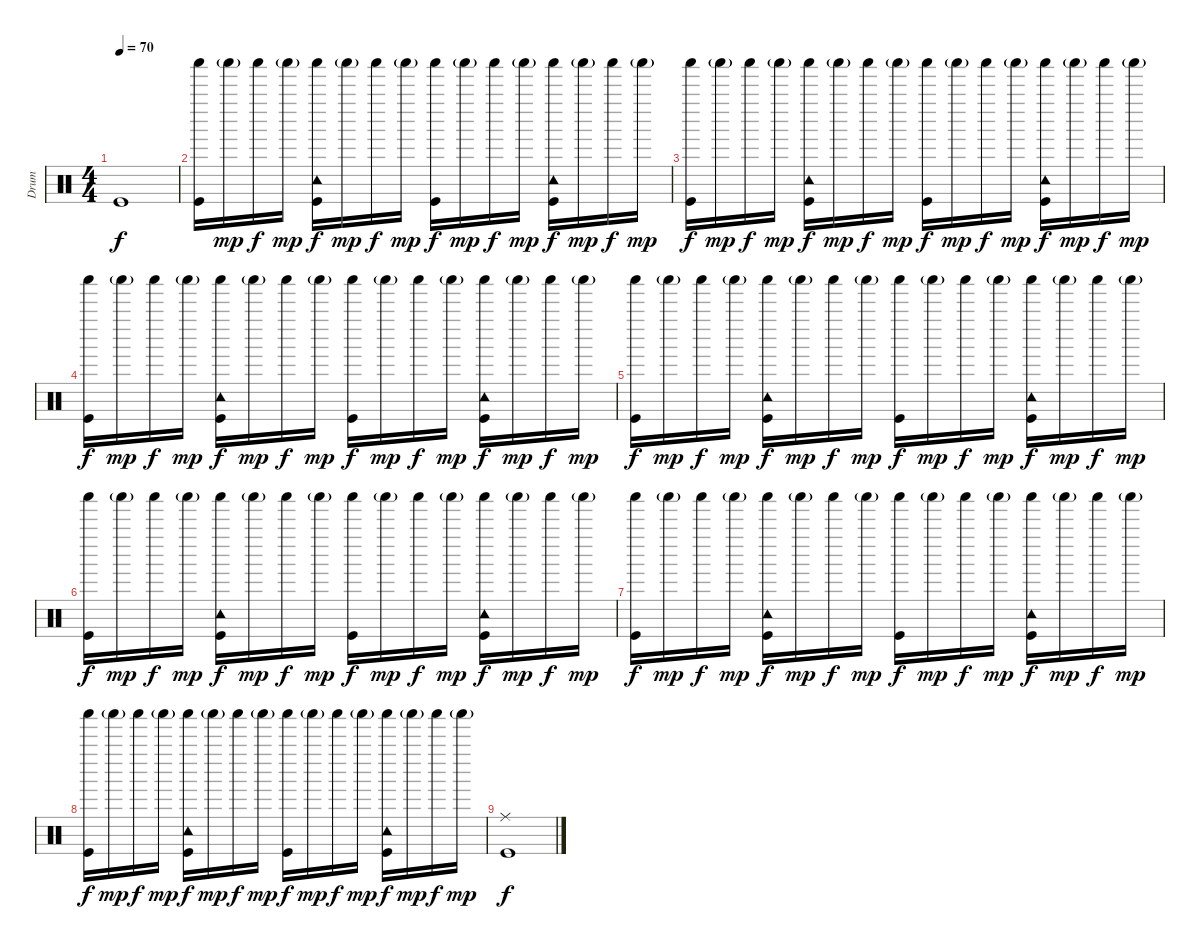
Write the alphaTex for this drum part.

\track ("Drum" "Drum") {instrument percussion}
\staff {score}
\articulation defaults
\ts (4 4)
\tempo 70
\clef neutral
\ks c "Kick (hit)".1{dy f}
|
("Shaker (hit)" "Kick (hit)").16 "Shaker (hit)"{g}.16{dy mp} "Shaker (hit)".16{dy f} "Shaker (hit)"{g}.16{dy mp} ("Tambourine (hit)" "Shaker (hit)" "Kick (hit)").16{dy f} "Shaker (hit)"{g}.16{dy mp} "Shaker (hit)".16{dy f} "Shaker (hit)"{g}.16{dy mp} ("Shaker (hit)" "Kick (hit)").16{dy f} "Shaker (hit)"{g}.16{dy mp} "Shaker (hit)".16{dy f} "Shaker (hit)"{g}.16{dy mp} ("Tambourine (hit)" "Shaker (hit)" "Kick (hit)").16{dy f} "Shaker (hit)"{g}.16{dy mp} "Shaker (hit)".16{dy f} "Shaker (hit)"{g}.16{dy mp} |
("Shaker (hit)" "Kick (hit)").16{dy f} "Shaker (hit)"{g}.16{dy mp} "Shaker (hit)".16{dy f} "Shaker (hit)"{g}.16{dy mp} ("Tambourine (hit)" "Shaker (hit)" "Kick (hit)").16{dy f} "Shaker (hit)"{g}.16{dy mp} "Shaker (hit)".16{dy f} "Shaker (hit)"{g}.16{dy mp} ("Shaker (hit)" "Kick (hit)").16{dy f} "Shaker (hit)"{g}.16{dy mp} "Shaker (hit)".16{dy f} "Shaker (hit)"{g}.16{dy mp} ("Tambourine (hit)" "Shaker (hit)" "Kick (hit)").16{dy f} "Shaker (hit)"{g}.16{dy mp} "Shaker (hit)".16{dy f} "Shaker (hit)"{g}.16{dy mp} |
("Shaker (hit)" "Kick (hit)").16{dy f} "Shaker (hit)"{g}.16{dy mp} "Shaker (hit)".16{dy f} "Shaker (hit)"{g}.16{dy mp} ("Tambourine (hit)" "Shaker (hit)" "Kick (hit)").16{dy f} "Shaker (hit)"{g}.16{dy mp} "Shaker (hit)".16{dy f} "Shaker (hit)"{g}.16{dy mp} ("Shaker (hit)" "Kick (hit)").16{dy f} "Shaker (hit)"{g}.16{dy mp} "Shaker (hit)".16{dy f} "Shaker (hit)"{g}.16{dy mp} ("Tambourine (hit)" "Shaker (hit)" "Kick (hit)").16{dy f} "Shaker (hit)"{g}.16{dy mp} "Shaker (hit)".16{dy f} "Shaker (hit)"{g}.16{dy mp} |
("Shaker (hit)" "Kick (hit)").16{dy f} "Shaker (hit)"{g}.16{dy mp} "Shaker (hit)".16{dy f} "Shaker (hit)"{g}.16{dy mp} ("Tambourine (hit)" "Shaker (hit)" "Kick (hit)").16{dy f} "Shaker (hit)"{g}.16{dy mp} "Shaker (hit)".16{dy f} "Shaker (hit)"{g}.16{dy mp} ("Shaker (hit)" "Kick (hit)").16{dy f} "Shaker (hit)"{g}.16{dy mp} "Shaker (hit)".16{dy f} "Shaker (hit)"{g}.16{dy mp} ("Tambourine (hit)" "Shaker (hit)" "Kick (hit)").16{dy f} "Shaker (hit)"{g}.16{dy mp} "Shaker (hit)".16{dy f} "Shaker (hit)"{g}.16{dy mp} |
("Shaker (hit)" "Kick (hit)").16{dy f} "Shaker (hit)"{g}.16{dy mp} "Shaker (hit)".16{dy f} "Shaker (hit)"{g}.16{dy mp} ("Tambourine (hit)" "Shaker (hit)" "Kick (hit)").16{dy f} "Shaker (hit)"{g}.16{dy mp} "Shaker (hit)".16{dy f} "Shaker (hit)"{g}.16{dy mp} ("Shaker (hit)" "Kick (hit)").16{dy f} "Shaker (hit)"{g}.16{dy mp} "Shaker (hit)".16{dy f} "Shaker (hit)"{g}.16{dy mp} ("Tambourine (hit)" "Shaker (hit)" "Kick (hit)").16{dy f} "Shaker (hit)"{g}.16{dy mp} "Shaker (hit)".16{dy f} "Shaker (hit)"{g}.16{dy mp} |
("Shaker (hit)" "Kick (hit)").16{dy f} "Shaker (hit)"{g}.16{dy mp} "Shaker (hit)".16{dy f} "Shaker (hit)"{g}.16{dy mp} ("Tambourine (hit)" "Shaker (hit)" "Kick (hit)").16{dy f} "Shaker (hit)"{g}.16{dy mp} "Shaker (hit)".16{dy f} "Shaker (hit)"{g}.16{dy mp} ("Shaker (hit)" "Kick (hit)").16{dy f} "Shaker (hit)"{g}.16{dy mp} "Shaker (hit)".16{dy f} "Shaker (hit)"{g}.16{dy mp} ("Tambourine (hit)" "Shaker (hit)" "Kick (hit)").16{dy f} "Shaker (hit)"{g}.16{dy mp} "Shaker (hit)".16{dy f} "Shaker (hit)"{g}.16{dy mp} |
("Shaker (hit)" "Kick (hit)").16{dy f} "Shaker (hit)"{g}.16{dy mp} "Shaker (hit)".16{dy f} "Shaker (hit)"{g}.16{dy mp} ("Tambourine (hit)" "Shaker (hit)" "Kick (hit)").16{dy f} "Shaker (hit)"{g}.16{dy mp} "Shaker (hit)".16{dy f} "Shaker (hit)"{g}.16{dy mp} ("Shaker (hit)" "Kick (hit)").16{dy f} "Shaker (hit)"{g}.16{dy mp} "Shaker (hit)".16{dy f} "Shaker (hit)"{g}.16{dy mp} ("Tambourine (hit)" "Shaker (hit)" "Kick (hit)").16{dy f} "Shaker (hit)"{g}.16{dy mp} "Shaker (hit)".16{dy f} "Shaker (hit)"{g}.16{dy mp} |
("Ride (middle)" "Kick (hit)").1{dy f}
